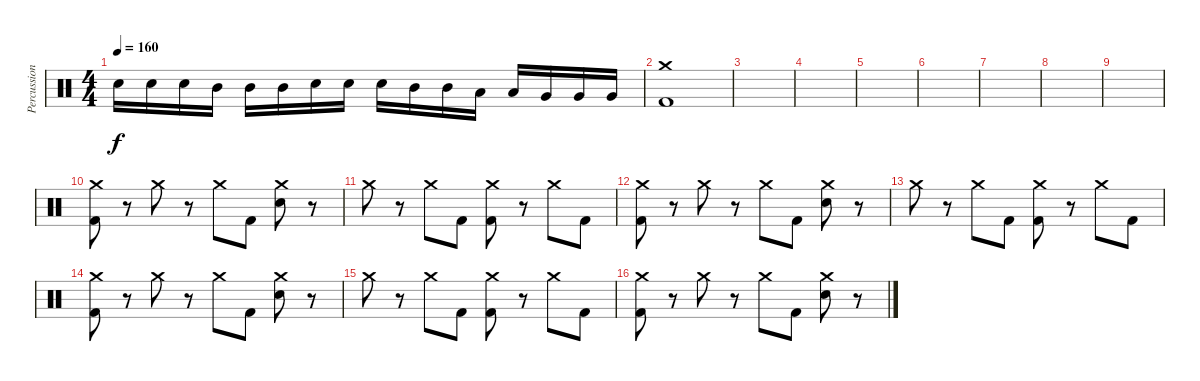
\track ("Percussion" "Percussion") {instrument percussion}
\staff {score}
\articulation defaults
\ts (4 4)
\tempo 160
\clef neutral
\ks c "Electric Snare (hit)".16{dy f} "Electric Snare (hit)".16 "Electric Snare (hit)".16 "Mid Tom (hit)".16 "Mid Tom (hit)".16 "Mid Tom (hit)".16 "Electric Snare (hit)".16 "Electric Snare (hit)".16 "Electric Snare (hit)".16 "Mid Tom (hit)".16 "Mid Tom (hit)".16 "Low Tom (hit)".16 "Low Tom (hit)".16 "Very Low Tom (hit)".16 "Very Low Tom (hit)".16 "Very Low Tom (hit)".16
|
("Crash medium (hit)" "Kick (hit) 2").1 |
|
|
|
|
|
|
|
("Crash medium (hit)" "Kick (hit) 2").8 r.8 "Crash medium (hit)".8 r.8 "Crash medium (hit)".8 "Kick (hit) 2".8 ("Crash medium (hit)" "Electric Snare (hit)").8 r.8 |
"Crash medium (hit)".8 r.8 "Crash medium (hit)".8 "Kick (hit) 2".8 ("Crash medium (hit)" "Kick (hit) 2").8 r.8 "Crash medium (hit)".8 "Kick (hit) 2".8 |
("Crash medium (hit)" "Kick (hit) 2").8 r.8 "Crash medium (hit)".8 r.8 "Crash medium (hit)".8 "Kick (hit) 2".8 ("Crash medium (hit)" "Electric Snare (hit)").8 r.8 |
"Crash medium (hit)".8 r.8 "Crash medium (hit)".8 "Kick (hit) 2".8 ("Crash medium (hit)" "Kick (hit) 2").8 r.8 "Crash medium (hit)".8 "Kick (hit) 2".8 |
("Crash medium (hit)" "Kick (hit) 2").8 r.8 "Crash medium (hit)".8 r.8 "Crash medium (hit)".8 "Kick (hit) 2".8 ("Crash medium (hit)" "Electric Snare (hit)").8 r.8 |
"Crash medium (hit)".8 r.8 "Crash medium (hit)".8 "Kick (hit) 2".8 ("Crash medium (hit)" "Kick (hit) 2").8 r.8 "Crash medium (hit)".8 "Kick (hit) 2".8 |
("Crash medium (hit)" "Kick (hit) 2").8 r.8 "Crash medium (hit)".8 r.8 "Crash medium (hit)".8 "Kick (hit) 2".8 ("Crash medium (hit)" "Electric Snare (hit)").8 r.8
